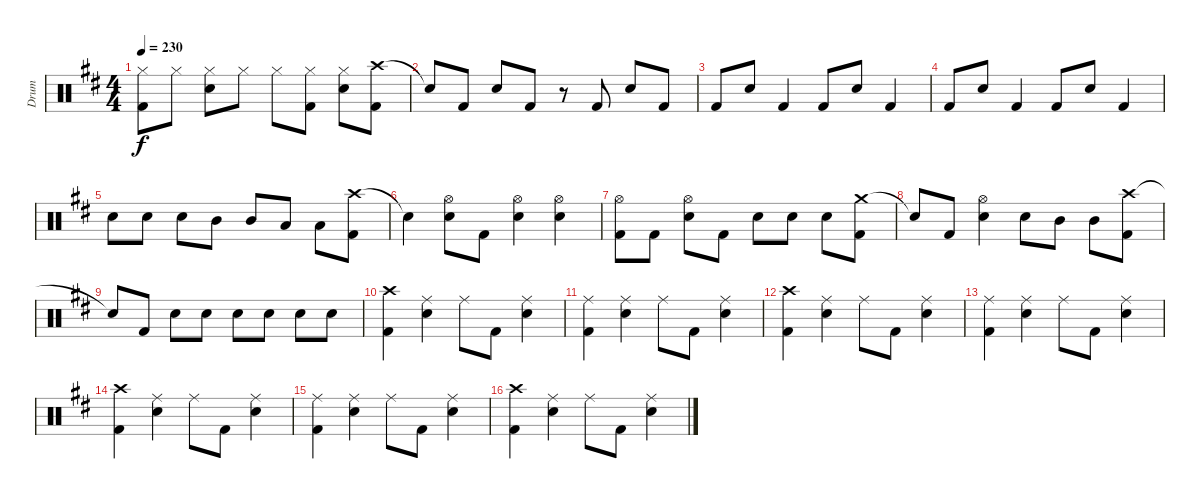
\track ("Drum" "Drum") {instrument percussion}
\staff {score}
\articulation defaults
\ts (4 4)
\tempo 230
\clef neutral
\ks d
("Hi-Hat (closed)" "Kick (hit) 2").8{dy f} "Hi-Hat (closed)".8 ("Hi-Hat (closed)" "Snare (hit) 2").8 "Hi-Hat (closed)".8 "Hi-Hat (closed)".8 ("Hi-Hat (closed)" "Kick (hit) 2").8 ("Hi-Hat (closed)" "Snare (hit) 2").8 ("Crash high (hit)" "Kick (hit) 2").8 |
"Snare (hit)"{t}.8 "Kick (hit) 2".8 "Snare (hit) 2".8 "Kick (hit) 2".8 r.8 "Kick (hit) 2".8 "Snare (hit) 2".8 "Kick (hit) 2".8 |
"Kick (hit) 2".8 "Snare (hit) 2".8 "Kick (hit) 2".4 "Kick (hit) 2".8 "Snare (hit) 2".8 "Kick (hit) 2".4 |
"Kick (hit) 2".8 "Snare (hit) 2".8 "Kick (hit) 2".4 "Kick (hit) 2".8 "Snare (hit) 2".8 "Kick (hit) 2".4 |
"Snare (hit) 2".8 "Snare (hit) 2".8 "Snare (hit) 2".8 "Mid Tom (hit)".8 "Mid Tom (hit)".8 "Low Tom (hit)".8 "Low Tom (hit)".8 ("Crash high (hit)" "Kick (hit) 2").8 |
"Snare (hit)"{t}.4 ("Hi-Hat (open)" "Snare (hit) 2").8 "Kick (hit) 2".8 ("Hi-Hat (open)" "Snare (hit) 2").4 ("Hi-Hat (open)" "Snare (hit) 2").4 |
("Hi-Hat (open)" "Kick (hit) 2").8 "Kick (hit) 2".8 ("Hi-Hat (open)" "Snare (hit) 2").8 "Kick (hit) 2".8 "Snare (hit) 2".8 "Snare (hit) 2".8 "Snare (hit) 2".8 ("Crash medium (hit)" "Kick (hit) 2").8 |
"Snare (hit)"{t}.8 "Kick (hit) 2".8 ("Hi-Hat (open)" "Snare (hit) 2").4 "Snare (hit) 2".8 "Mid Tom (hit)".8 "Mid Tom (hit)".8 ("Crash high (hit)" "Kick (hit) 2").8 |
"Snare (hit)"{t}.8 "Kick (hit) 2".8 "Snare (hit) 2".8 "Snare (hit) 2".8 "Snare (hit) 2".8 "Snare (hit) 2".8 "Snare (hit) 2".8 "Snare (hit) 2".8 |
("Crash high (hit)" "Kick (hit) 2").4 ("Ride (middle)" "Snare (hit) 2").4 "Ride (middle)".8 "Kick (hit) 2".8 ("Ride (middle)" "Snare (hit) 2").4 |
("Ride (middle)" "Kick (hit) 2").4 ("Ride (middle)" "Snare (hit) 2").4 "Ride (middle)".8 "Kick (hit) 2".8 ("Ride (middle)" "Snare (hit) 2").4 |
("Crash high (hit)" "Kick (hit) 2").4 ("Ride (middle)" "Snare (hit) 2").4 "Ride (middle)".8 "Kick (hit) 2".8 ("Ride (middle)" "Snare (hit) 2").4 |
("Ride (middle)" "Kick (hit) 2").4 ("Ride (middle)" "Snare (hit) 2").4 "Ride (middle)".8 "Kick (hit) 2".8 ("Ride (middle)" "Snare (hit) 2").4 |
("Crash high (hit)" "Kick (hit) 2").4 ("Ride (middle)" "Snare (hit) 2").4 "Ride (middle)".8 "Kick (hit) 2".8 ("Ride (middle)" "Snare (hit) 2").4 |
("Ride (middle)" "Kick (hit) 2").4 ("Ride (middle)" "Snare (hit) 2").4 "Ride (middle)".8 "Kick (hit) 2".8 ("Ride (middle)" "Snare (hit) 2").4 |
("Crash high (hit)" "Kick (hit) 2").4 ("Ride (middle)" "Snare (hit) 2").4 "Ride (middle)".8 "Kick (hit) 2".8 ("Ride (middle)" "Snare (hit) 2").4
